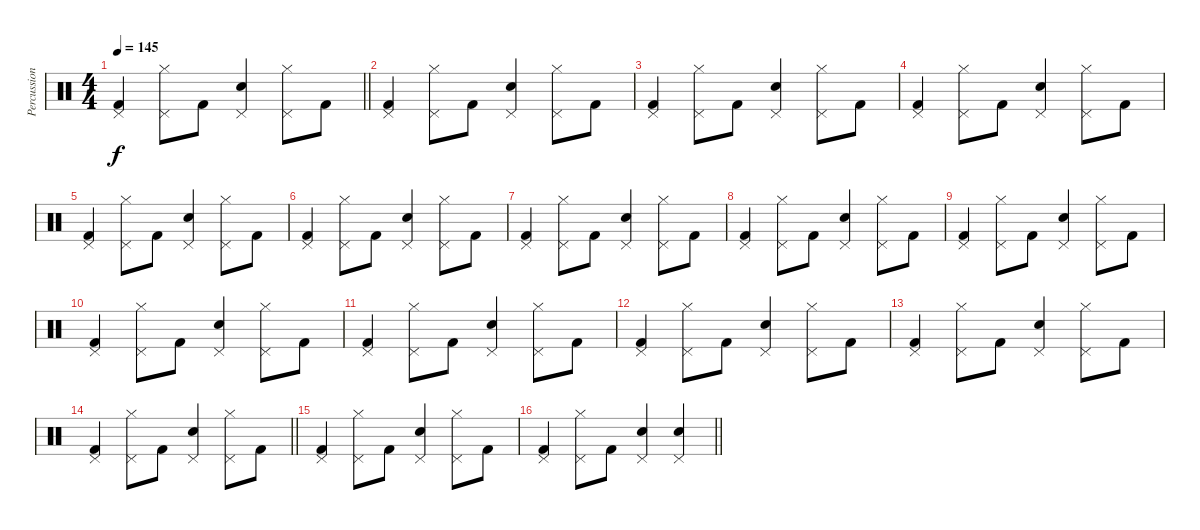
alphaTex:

\track ("Percussion" "Percussion") {instrument percussion}
\staff {score}
\articulation defaults
\ts (4 4)
\tempo 145
\clef neutral
\barLineRight lightlight
\ks c
("Kick (hit) 2" "Pedal Hi-Hat (hit)").4{dy f} ("Hi-Hat (closed)" "Pedal Hi-Hat (hit)").8 "Kick (hit) 2".8 ("Snare (hit) 2" "Pedal Hi-Hat (hit)").4 ("Hi-Hat (closed)" "Pedal Hi-Hat (hit)").8 "Kick (hit) 2".8 |
("Kick (hit) 2" "Pedal Hi-Hat (hit)").4 ("Hi-Hat (closed)" "Pedal Hi-Hat (hit)").8 "Kick (hit) 2".8 ("Snare (hit) 2" "Pedal Hi-Hat (hit)").4 ("Hi-Hat (closed)" "Pedal Hi-Hat (hit)").8 "Kick (hit) 2".8 |
("Kick (hit) 2" "Pedal Hi-Hat (hit)").4 ("Hi-Hat (closed)" "Pedal Hi-Hat (hit)").8 "Kick (hit) 2".8 ("Snare (hit) 2" "Pedal Hi-Hat (hit)").4 ("Hi-Hat (closed)" "Pedal Hi-Hat (hit)").8 "Kick (hit) 2".8 |
("Kick (hit) 2" "Pedal Hi-Hat (hit)").4 ("Hi-Hat (closed)" "Pedal Hi-Hat (hit)").8 "Kick (hit) 2".8 ("Snare (hit) 2" "Pedal Hi-Hat (hit)").4 ("Hi-Hat (closed)" "Pedal Hi-Hat (hit)").8 "Kick (hit) 2".8 |
("Kick (hit) 2" "Pedal Hi-Hat (hit)").4 ("Hi-Hat (closed)" "Pedal Hi-Hat (hit)").8 "Kick (hit) 2".8 ("Snare (hit) 2" "Pedal Hi-Hat (hit)").4 ("Hi-Hat (closed)" "Pedal Hi-Hat (hit)").8 "Kick (hit) 2".8 |
("Kick (hit) 2" "Pedal Hi-Hat (hit)").4 ("Hi-Hat (closed)" "Pedal Hi-Hat (hit)").8 "Kick (hit) 2".8 ("Snare (hit) 2" "Pedal Hi-Hat (hit)").4 ("Hi-Hat (closed)" "Pedal Hi-Hat (hit)").8 "Kick (hit) 2".8 |
("Kick (hit) 2" "Pedal Hi-Hat (hit)").4 ("Hi-Hat (closed)" "Pedal Hi-Hat (hit)").8 "Kick (hit) 2".8 ("Snare (hit) 2" "Pedal Hi-Hat (hit)").4 ("Hi-Hat (closed)" "Pedal Hi-Hat (hit)").8 "Kick (hit) 2".8 |
("Kick (hit) 2" "Pedal Hi-Hat (hit)").4 ("Hi-Hat (closed)" "Pedal Hi-Hat (hit)").8 "Kick (hit) 2".8 ("Snare (hit) 2" "Pedal Hi-Hat (hit)").4 ("Hi-Hat (closed)" "Pedal Hi-Hat (hit)").8 "Kick (hit) 2".8 |
("Kick (hit) 2" "Pedal Hi-Hat (hit)").4 ("Hi-Hat (closed)" "Pedal Hi-Hat (hit)").8 "Kick (hit) 2".8 ("Snare (hit) 2" "Pedal Hi-Hat (hit)").4 ("Hi-Hat (closed)" "Pedal Hi-Hat (hit)").8 "Kick (hit) 2".8 |
("Kick (hit) 2" "Pedal Hi-Hat (hit)").4 ("Hi-Hat (closed)" "Pedal Hi-Hat (hit)").8 "Kick (hit) 2".8 ("Snare (hit) 2" "Pedal Hi-Hat (hit)").4 ("Hi-Hat (closed)" "Pedal Hi-Hat (hit)").8 "Kick (hit) 2".8 |
("Kick (hit) 2" "Pedal Hi-Hat (hit)").4 ("Hi-Hat (closed)" "Pedal Hi-Hat (hit)").8 "Kick (hit) 2".8 ("Snare (hit) 2" "Pedal Hi-Hat (hit)").4 ("Hi-Hat (closed)" "Pedal Hi-Hat (hit)").8 "Kick (hit) 2".8 |
("Kick (hit) 2" "Pedal Hi-Hat (hit)").4 ("Hi-Hat (closed)" "Pedal Hi-Hat (hit)").8 "Kick (hit) 2".8 ("Snare (hit) 2" "Pedal Hi-Hat (hit)").4 ("Hi-Hat (closed)" "Pedal Hi-Hat (hit)").8 "Kick (hit) 2".8 |
("Kick (hit) 2" "Pedal Hi-Hat (hit)").4 ("Hi-Hat (closed)" "Pedal Hi-Hat (hit)").8 "Kick (hit) 2".8 ("Snare (hit) 2" "Pedal Hi-Hat (hit)").4 ("Hi-Hat (closed)" "Pedal Hi-Hat (hit)").8 "Kick (hit) 2".8 |
\barLineRight lightlight
("Kick (hit) 2" "Pedal Hi-Hat (hit)").4 ("Hi-Hat (closed)" "Pedal Hi-Hat (hit)").8 "Kick (hit) 2".8 ("Snare (hit) 2" "Pedal Hi-Hat (hit)").4 ("Hi-Hat (closed)" "Pedal Hi-Hat (hit)").8 "Kick (hit) 2".8 |
("Kick (hit) 2" "Pedal Hi-Hat (hit)").4 ("Hi-Hat (closed)" "Pedal Hi-Hat (hit)").8 "Kick (hit) 2".8 ("Snare (hit) 2" "Pedal Hi-Hat (hit)").4 ("Hi-Hat (closed)" "Pedal Hi-Hat (hit)").8 "Kick (hit) 2".8 |
\barLineRight lightlight
("Kick (hit) 2" "Pedal Hi-Hat (hit)").4 ("Hi-Hat (closed)" "Pedal Hi-Hat (hit)").8 "Kick (hit) 2".8 ("Snare (hit) 2" "Pedal Hi-Hat (hit)").4 ("Snare (hit) 2" "Pedal Hi-Hat (hit)").4
